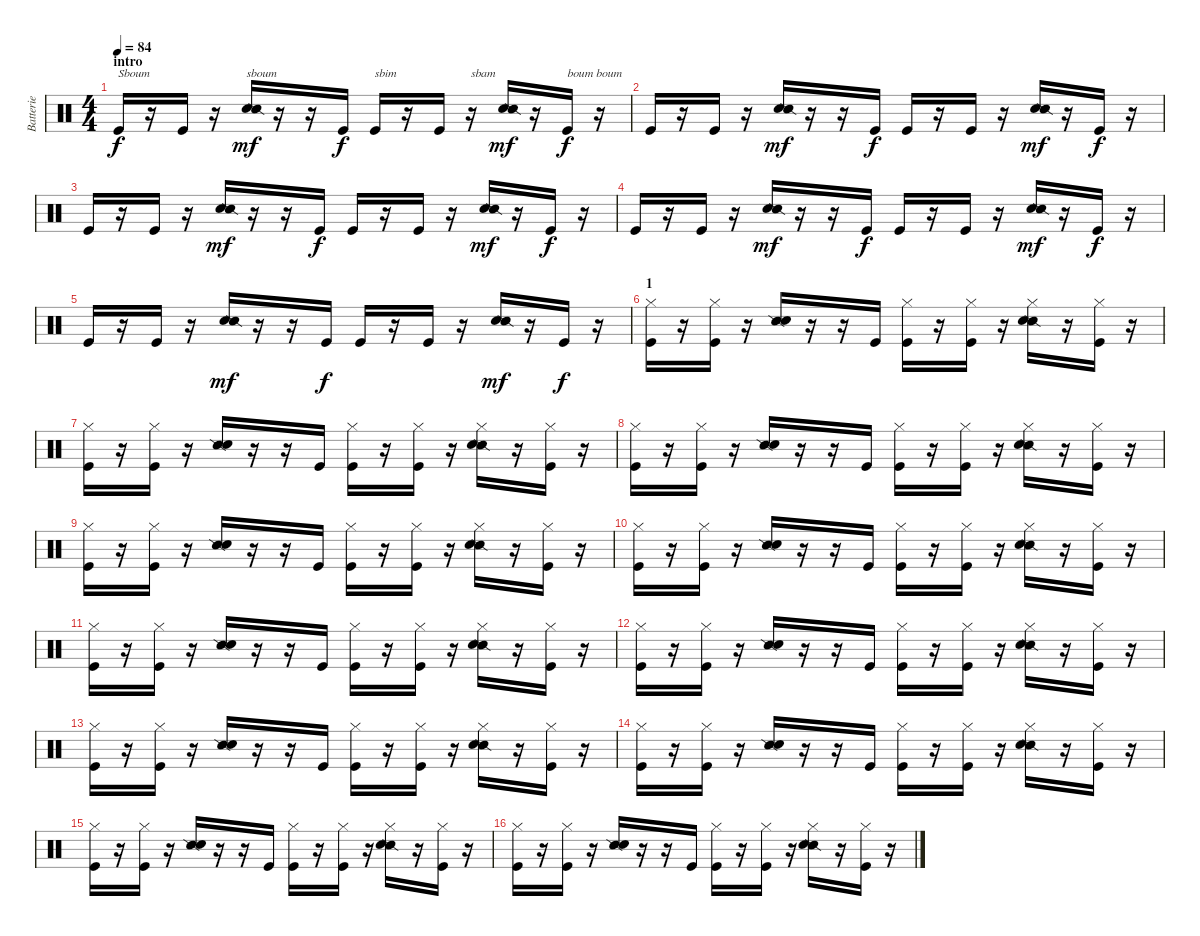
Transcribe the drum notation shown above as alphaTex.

\track ("Batterie" "Batterie") {instrument percussion}
\staff {score}
\articulation defaults
\ts (4 4)
\section ("" "intro")
\tempo 84
\clef neutral
\ks c "Kick (hit)".16{txt "Sboum" dy f}
r.16 "Kick (hit)".16 r.16 ("Hand Clap (hit)" "Snare (side stick) 2").16{txt "sboum" dy mf} r.16 r.16 "Kick (hit)".16{dy f} "Kick (hit)".16{txt "sbim"} r.16 "Kick (hit)".16 r.16{txt "sbam"} ("Hand Clap (hit)" "Snare (side stick) 2").16{dy mf} r.16 "Kick (hit)".16{txt "boum boum" dy f} r.16 |
"Kick (hit)".16 r.16 "Kick (hit)".16 r.16 ("Hand Clap (hit)" "Snare (side stick) 2").16{dy mf} r.16 r.16 "Kick (hit)".16{dy f} "Kick (hit)".16 r.16 "Kick (hit)".16 r.16 ("Hand Clap (hit)" "Snare (side stick) 2").16{dy mf} r.16 "Kick (hit)".16{dy f} r.16 |
"Kick (hit)".16 r.16 "Kick (hit)".16 r.16 ("Hand Clap (hit)" "Snare (side stick) 2").16{dy mf} r.16 r.16 "Kick (hit)".16{dy f} "Kick (hit)".16 r.16 "Kick (hit)".16 r.16 ("Hand Clap (hit)" "Snare (side stick) 2").16{dy mf} r.16 "Kick (hit)".16{dy f} r.16 |
"Kick (hit)".16 r.16 "Kick (hit)".16 r.16 ("Hand Clap (hit)" "Snare (side stick) 2").16{dy mf} r.16 r.16 "Kick (hit)".16{dy f} "Kick (hit)".16 r.16 "Kick (hit)".16 r.16 ("Hand Clap (hit)" "Snare (side stick) 2").16{dy mf} r.16 "Kick (hit)".16{dy f} r.16 |
"Kick (hit)".16 r.16 "Kick (hit)".16 r.16 ("Hand Clap (hit)" "Snare (side stick) 2").16{dy mf} r.16 r.16 "Kick (hit)".16{dy f} "Kick (hit)".16 r.16 "Kick (hit)".16 r.16 ("Hand Clap (hit)" "Snare (side stick) 2").16{dy mf} r.16 "Kick (hit)".16{dy f} r.16 |
\section ("" "1")
("Hi-Hat (closed)" "Kick (hit)").16 r.16 ("Hi-Hat (closed)" "Kick (hit)").16 r.16 ("Snare (side stick) 2" "Electric Snare (hit)").16 r.16 r.16 "Kick (hit)".16 ("Hi-Hat (closed)" "Kick (hit)").16 r.16 ("Hi-Hat (closed)" "Kick (hit)").16 r.16 ("Hi-Hat (closed)" "Snare (side stick) 2" "Electric Snare (hit)").16 r.16 ("Hi-Hat (closed)" "Kick (hit)").16 r.16 |
("Hi-Hat (closed)" "Kick (hit)").16 r.16 ("Hi-Hat (closed)" "Kick (hit)").16 r.16 ("Snare (side stick) 2" "Electric Snare (hit)").16 r.16 r.16 "Kick (hit)".16 ("Hi-Hat (closed)" "Kick (hit)").16 r.16 ("Hi-Hat (closed)" "Kick (hit)").16 r.16 ("Hi-Hat (closed)" "Snare (side stick) 2" "Electric Snare (hit)").16 r.16 ("Hi-Hat (closed)" "Kick (hit)").16 r.16 |
("Hi-Hat (closed)" "Kick (hit)").16 r.16 ("Hi-Hat (closed)" "Kick (hit)").16 r.16 ("Snare (side stick) 2" "Electric Snare (hit)").16 r.16 r.16 "Kick (hit)".16 ("Hi-Hat (closed)" "Kick (hit)").16 r.16 ("Hi-Hat (closed)" "Kick (hit)").16 r.16 ("Hi-Hat (closed)" "Snare (side stick) 2" "Electric Snare (hit)").16 r.16 ("Hi-Hat (closed)" "Kick (hit)").16 r.16 |
("Hi-Hat (closed)" "Kick (hit)").16 r.16 ("Hi-Hat (closed)" "Kick (hit)").16 r.16 ("Snare (side stick) 2" "Electric Snare (hit)").16 r.16 r.16 "Kick (hit)".16 ("Hi-Hat (closed)" "Kick (hit)").16 r.16 ("Hi-Hat (closed)" "Kick (hit)").16 r.16 ("Hi-Hat (closed)" "Snare (side stick) 2" "Electric Snare (hit)").16 r.16 ("Hi-Hat (closed)" "Kick (hit)").16 r.16 |
("Hi-Hat (closed)" "Kick (hit)").16 r.16 ("Hi-Hat (closed)" "Kick (hit)").16 r.16 ("Snare (side stick) 2" "Electric Snare (hit)").16 r.16 r.16 "Kick (hit)".16 ("Hi-Hat (closed)" "Kick (hit)").16 r.16 ("Hi-Hat (closed)" "Kick (hit)").16 r.16 ("Hi-Hat (closed)" "Snare (side stick) 2" "Electric Snare (hit)").16 r.16 ("Hi-Hat (closed)" "Kick (hit)").16 r.16 |
("Hi-Hat (closed)" "Kick (hit)").16 r.16 ("Hi-Hat (closed)" "Kick (hit)").16 r.16 ("Snare (side stick) 2" "Electric Snare (hit)").16 r.16 r.16 "Kick (hit)".16 ("Hi-Hat (closed)" "Kick (hit)").16 r.16 ("Hi-Hat (closed)" "Kick (hit)").16 r.16 ("Hi-Hat (closed)" "Snare (side stick) 2" "Electric Snare (hit)").16 r.16 ("Hi-Hat (closed)" "Kick (hit)").16 r.16 |
("Hi-Hat (closed)" "Kick (hit)").16 r.16 ("Hi-Hat (closed)" "Kick (hit)").16 r.16 ("Snare (side stick) 2" "Electric Snare (hit)").16 r.16 r.16 "Kick (hit)".16 ("Hi-Hat (closed)" "Kick (hit)").16 r.16 ("Hi-Hat (closed)" "Kick (hit)").16 r.16 ("Hi-Hat (closed)" "Snare (side stick) 2" "Electric Snare (hit)").16 r.16 ("Hi-Hat (closed)" "Kick (hit)").16 r.16 |
("Hi-Hat (closed)" "Kick (hit)").16 r.16 ("Hi-Hat (closed)" "Kick (hit)").16 r.16 ("Snare (side stick) 2" "Electric Snare (hit)").16 r.16 r.16 "Kick (hit)".16 ("Hi-Hat (closed)" "Kick (hit)").16 r.16 ("Hi-Hat (closed)" "Kick (hit)").16 r.16 ("Hi-Hat (closed)" "Snare (side stick) 2" "Electric Snare (hit)").16 r.16 ("Hi-Hat (closed)" "Kick (hit)").16 r.16 |
("Hi-Hat (closed)" "Kick (hit)").16 r.16 ("Hi-Hat (closed)" "Kick (hit)").16 r.16 ("Snare (side stick) 2" "Electric Snare (hit)").16 r.16 r.16 "Kick (hit)".16 ("Hi-Hat (closed)" "Kick (hit)").16 r.16 ("Hi-Hat (closed)" "Kick (hit)").16 r.16 ("Hi-Hat (closed)" "Snare (side stick) 2" "Electric Snare (hit)").16 r.16 ("Hi-Hat (closed)" "Kick (hit)").16 r.16 |
("Hi-Hat (closed)" "Kick (hit)").16 r.16 ("Hi-Hat (closed)" "Kick (hit)").16 r.16 ("Snare (side stick) 2" "Electric Snare (hit)").16 r.16 r.16 "Kick (hit)".16 ("Hi-Hat (closed)" "Kick (hit)").16 r.16 ("Hi-Hat (closed)" "Kick (hit)").16 r.16 ("Hi-Hat (closed)" "Snare (side stick) 2" "Electric Snare (hit)").16 r.16 ("Hi-Hat (closed)" "Kick (hit)").16 r.16 |
("Hi-Hat (closed)" "Kick (hit)").16 r.16 ("Hi-Hat (closed)" "Kick (hit)").16 r.16 ("Snare (side stick) 2" "Electric Snare (hit)").16 r.16 r.16 "Kick (hit)".16 ("Hi-Hat (closed)" "Kick (hit)").16 r.16 ("Hi-Hat (closed)" "Kick (hit)").16 r.16 ("Hi-Hat (closed)" "Snare (side stick) 2" "Electric Snare (hit)").16 r.16 ("Hi-Hat (closed)" "Kick (hit)").16 r.16
